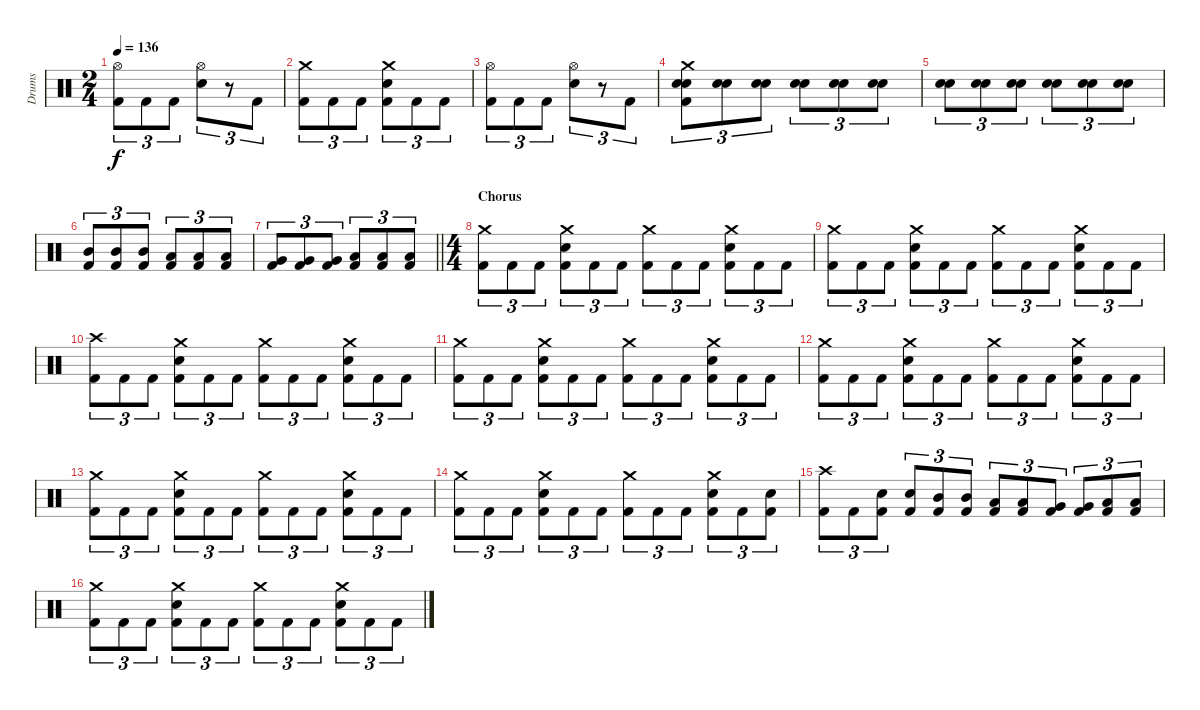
\track ("Drums" "Drums") {instrument percussion}
\staff {score}
\articulation defaults
\ts (2 4)
\tempo 136
\clef neutral
\ks c
("Hi-Hat (open)" "Kick (hit) 2").8{tu (3 2) dy f} "Kick (hit) 2".8{tu (3 2)} "Kick (hit) 2".8{tu (3 2)} ("Hi-Hat (open)" "Electric Snare (hit)").8{tu (3 2)} r.8{tu (3 2)} "Kick (hit) 2".8{tu (3 2)} |
("Crash medium (hit)" "Kick (hit) 2").8{tu (3 2)} "Kick (hit) 2".8{tu (3 2)} "Kick (hit) 2".8{tu (3 2)} ("Crash medium (hit)" "Electric Snare (hit)" "Kick (hit) 2").8{tu (3 2)} "Kick (hit) 2".8{tu (3 2)} "Kick (hit) 2".8{tu (3 2)} |
("Hi-Hat (open)" "Kick (hit) 2").8{tu (3 2)} "Kick (hit) 2".8{tu (3 2)} "Kick (hit) 2".8{tu (3 2)} ("Hi-Hat (open)" "Electric Snare (hit)").8{tu (3 2)} r.8{tu (3 2)} "Kick (hit) 2".8{tu (3 2)} |
("Crash medium (hit)" "Electric Snare (hit)" "Electric Snare (hit)" "Kick (hit) 2").8{tu (3 2)} ("Electric Snare (hit)" "Electric Snare (hit)").8{tu (3 2)} ("Electric Snare (hit)" "Electric Snare (hit)").8{tu (3 2)} ("Electric Snare (hit)" "Electric Snare (hit)").8{tu (3 2)} ("Electric Snare (hit)" "Electric Snare (hit)").8{tu (3 2)} ("Electric Snare (hit)" "Electric Snare (hit)").8{tu (3 2)} |
("Electric Snare (hit)" "Electric Snare (hit)").8{tu (3 2)} ("Electric Snare (hit)" "Electric Snare (hit)").8{tu (3 2)} ("Electric Snare (hit)" "Electric Snare (hit)").8{tu (3 2)} ("Electric Snare (hit)" "Electric Snare (hit)").8{tu (3 2)} ("Electric Snare (hit)" "Electric Snare (hit)").8{tu (3 2)} ("Electric Snare (hit)" "Electric Snare (hit)").8{tu (3 2)} |
("Mid Tom (hit)" "Kick (hit) 2").8{tu (3 2)} ("Mid Tom (hit)" "Kick (hit) 2").8{tu (3 2)} ("Mid Tom (hit)" "Kick (hit) 2").8{tu (3 2)} ("Low Tom (hit)" "Kick (hit) 2").8{tu (3 2)} ("Low Tom (hit)" "Kick (hit) 2").8{tu (3 2)} ("Low Tom (hit)" "Kick (hit) 2").8{tu (3 2)} |
\barLineRight lightlight
("Very Low Tom (hit)" "Kick (hit) 2").8{tu (3 2)} ("Very Low Tom (hit)" "Kick (hit) 2").8{tu (3 2)} ("Very Low Tom (hit)" "Kick (hit) 2").8{tu (3 2)} ("Low Floor Tom (hit)" "Kick (hit) 2").8{tu (3 2)} ("Low Floor Tom (hit)" "Kick (hit) 2").8{tu (3 2)} ("Low Floor Tom (hit)" "Kick (hit) 2").8{tu (3 2)} |
\ts (4 4)
\section ("" "Chorus")
("Crash medium (hit)" "Kick (hit) 2").8{tu (3 2)} "Kick (hit) 2".8{tu (3 2)} "Kick (hit) 2".8{tu (3 2)} ("Crash medium (hit)" "Electric Snare (hit)" "Kick (hit) 2").8{tu (3 2)} "Kick (hit) 2".8{tu (3 2)} "Kick (hit) 2".8{tu (3 2)} ("Crash medium (hit)" "Kick (hit) 2").8{tu (3 2)} "Kick (hit) 2".8{tu (3 2)} "Kick (hit) 2".8{tu (3 2)} ("Crash medium (hit)" "Electric Snare (hit)" "Kick (hit) 2").8{tu (3 2)} "Kick (hit) 2".8{tu (3 2)} "Kick (hit) 2".8{tu (3 2)} |
("Crash medium (hit)" "Kick (hit) 2").8{tu (3 2)} "Kick (hit) 2".8{tu (3 2)} "Kick (hit) 2".8{tu (3 2)} ("Crash medium (hit)" "Electric Snare (hit)" "Kick (hit) 2").8{tu (3 2)} "Kick (hit) 2".8{tu (3 2)} "Kick (hit) 2".8{tu (3 2)} ("Crash medium (hit)" "Kick (hit) 2").8{tu (3 2)} "Kick (hit) 2".8{tu (3 2)} "Kick (hit) 2".8{tu (3 2)} ("Crash medium (hit)" "Electric Snare (hit)" "Kick (hit) 2").8{tu (3 2)} "Kick (hit) 2".8{tu (3 2)} "Kick (hit) 2".8{tu (3 2)} |
("Crash high (hit)" "Kick (hit) 2").8{tu (3 2)} "Kick (hit) 2".8{tu (3 2)} "Kick (hit) 2".8{tu (3 2)} ("Crash medium (hit)" "Electric Snare (hit)" "Kick (hit) 2").8{tu (3 2)} "Kick (hit) 2".8{tu (3 2)} "Kick (hit) 2".8{tu (3 2)} ("Crash medium (hit)" "Kick (hit) 2").8{tu (3 2)} "Kick (hit) 2".8{tu (3 2)} "Kick (hit) 2".8{tu (3 2)} ("Crash medium (hit)" "Electric Snare (hit)" "Kick (hit) 2").8{tu (3 2)} "Kick (hit) 2".8{tu (3 2)} "Kick (hit) 2".8{tu (3 2)} |
("Crash medium (hit)" "Kick (hit) 2").8{tu (3 2)} "Kick (hit) 2".8{tu (3 2)} "Kick (hit) 2".8{tu (3 2)} ("Crash medium (hit)" "Electric Snare (hit)" "Kick (hit) 2").8{tu (3 2)} "Kick (hit) 2".8{tu (3 2)} "Kick (hit) 2".8{tu (3 2)} ("Crash medium (hit)" "Kick (hit) 2").8{tu (3 2)} "Kick (hit) 2".8{tu (3 2)} "Kick (hit) 2".8{tu (3 2)} ("Crash medium (hit)" "Electric Snare (hit)" "Kick (hit) 2").8{tu (3 2)} "Kick (hit) 2".8{tu (3 2)} "Kick (hit) 2".8{tu (3 2)} |
("Crash medium (hit)" "Kick (hit) 2").8{tu (3 2)} "Kick (hit) 2".8{tu (3 2)} "Kick (hit) 2".8{tu (3 2)} ("Crash medium (hit)" "Electric Snare (hit)" "Kick (hit) 2").8{tu (3 2)} "Kick (hit) 2".8{tu (3 2)} "Kick (hit) 2".8{tu (3 2)} ("Crash medium (hit)" "Kick (hit) 2").8{tu (3 2)} "Kick (hit) 2".8{tu (3 2)} "Kick (hit) 2".8{tu (3 2)} ("Crash medium (hit)" "Electric Snare (hit)" "Kick (hit) 2").8{tu (3 2)} "Kick (hit) 2".8{tu (3 2)} "Kick (hit) 2".8{tu (3 2)} |
("Crash medium (hit)" "Kick (hit) 2").8{tu (3 2)} "Kick (hit) 2".8{tu (3 2)} "Kick (hit) 2".8{tu (3 2)} ("Crash medium (hit)" "Electric Snare (hit)" "Kick (hit) 2").8{tu (3 2)} "Kick (hit) 2".8{tu (3 2)} "Kick (hit) 2".8{tu (3 2)} ("Crash medium (hit)" "Kick (hit) 2").8{tu (3 2)} "Kick (hit) 2".8{tu (3 2)} "Kick (hit) 2".8{tu (3 2)} ("Crash medium (hit)" "Electric Snare (hit)" "Kick (hit) 2").8{tu (3 2)} "Kick (hit) 2".8{tu (3 2)} "Kick (hit) 2".8{tu (3 2)} |
("Crash medium (hit)" "Kick (hit) 2").8{tu (3 2)} "Kick (hit) 2".8{tu (3 2)} "Kick (hit) 2".8{tu (3 2)} ("Crash medium (hit)" "Electric Snare (hit)" "Kick (hit) 2").8{tu (3 2)} "Kick (hit) 2".8{tu (3 2)} "Kick (hit) 2".8{tu (3 2)} ("Crash medium (hit)" "Kick (hit) 2").8{tu (3 2)} "Kick (hit) 2".8{tu (3 2)} "Kick (hit) 2".8{tu (3 2)} ("Crash medium (hit)" "Electric Snare (hit)" "Kick (hit) 2").8{tu (3 2)} "Kick (hit) 2".8{tu (3 2)} ("Electric Snare (hit)" "Kick (hit) 2").8{tu (3 2)} |
("Crash high (hit)" "Kick (hit) 2").8{tu (3 2)} "Kick (hit) 2".8{tu (3 2)} ("Electric Snare (hit)" "Kick (hit) 2").8{tu (3 2)} ("Electric Snare (hit)" "Kick (hit) 2").8{tu (3 2)} ("Mid Tom (hit)" "Kick (hit) 2").8{tu (3 2)} ("Mid Tom (hit)" "Kick (hit) 2").8{tu (3 2)} ("Low Tom (hit)" "Kick (hit) 2").8{tu (3 2)} ("Low Tom (hit)" "Kick (hit) 2").8{tu (3 2)} ("Very Low Tom (hit)" "Kick (hit) 2").8{tu (3 2)} ("Very Low Tom (hit)" "Kick (hit) 2").8{tu (3 2)} ("Low Floor Tom (hit)" "Kick (hit) 2").8{tu (3 2)} ("Low Floor Tom (hit)" "Kick (hit) 2").8{tu (3 2)} |
("Crash medium (hit)" "Kick (hit) 2").8{tu (3 2)} "Kick (hit) 2".8{tu (3 2)} "Kick (hit) 2".8{tu (3 2)} ("Crash medium (hit)" "Electric Snare (hit)" "Kick (hit) 2").8{tu (3 2)} "Kick (hit) 2".8{tu (3 2)} "Kick (hit) 2".8{tu (3 2)} ("Crash medium (hit)" "Kick (hit) 2").8{tu (3 2)} "Kick (hit) 2".8{tu (3 2)} "Kick (hit) 2".8{tu (3 2)} ("Crash medium (hit)" "Electric Snare (hit)" "Kick (hit) 2").8{tu (3 2)} "Kick (hit) 2".8{tu (3 2)} "Kick (hit) 2".8{tu (3 2)}
